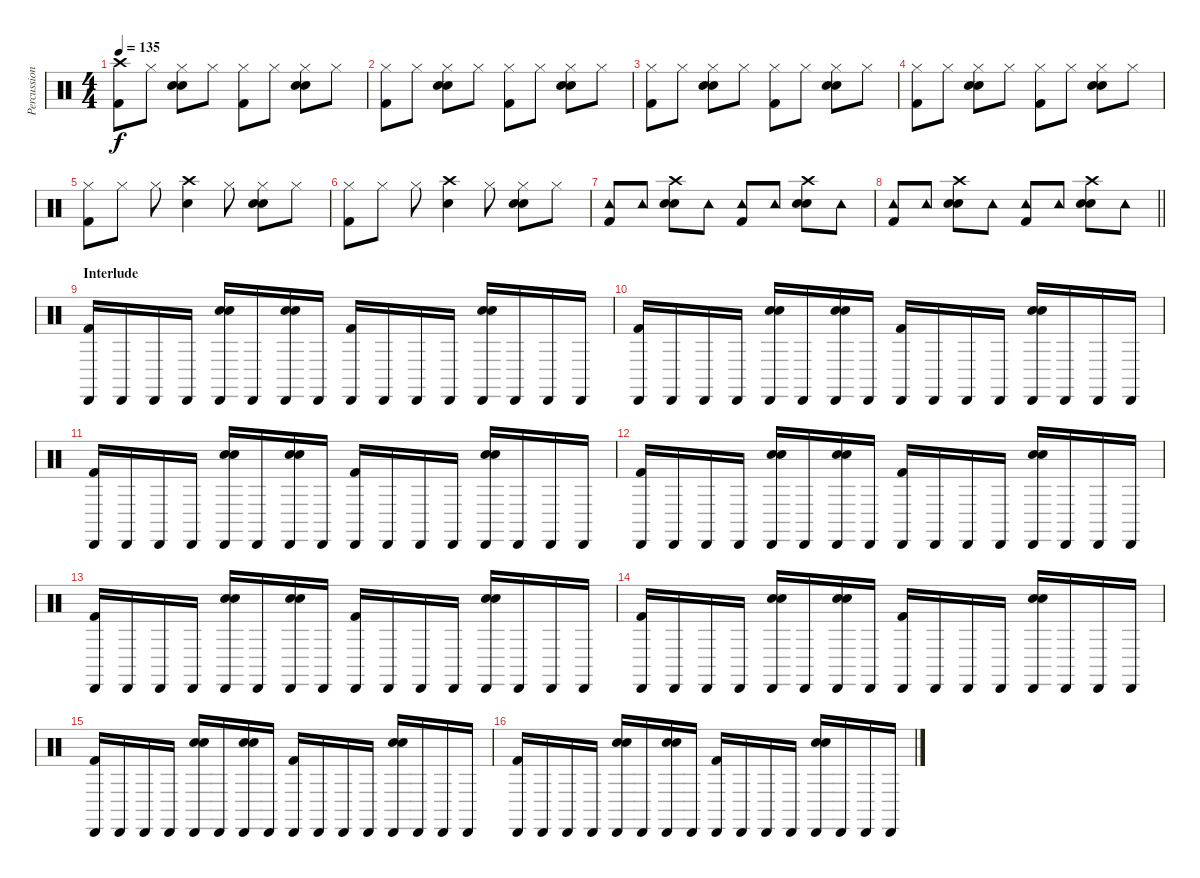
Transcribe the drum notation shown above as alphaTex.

\track ("Percussion" "Percussion") {instrument percussion}
\staff {score}
\articulation defaults
\ts (4 4)
\tempo 135
\clef neutral
\ks c
("Crash high (hit)" "Kick (hit) 2").8{dy f} "Hi-Hat (closed)".8 ("Hi-Hat (closed)" "Snare (hit) 2" "Hand Clap (hit)").8 "Hi-Hat (closed)".8 ("Hi-Hat (closed)" "Kick (hit) 2").8 "Hi-Hat (closed)".8 ("Hi-Hat (closed)" "Snare (hit) 2" "Hand Clap (hit)").8 "Hi-Hat (closed)".8 |
("Hi-Hat (closed)" "Kick (hit) 2").8 "Hi-Hat (closed)".8 ("Hi-Hat (closed)" "Snare (hit) 2" "Hand Clap (hit)").8 "Hi-Hat (closed)".8 ("Hi-Hat (closed)" "Kick (hit) 2").8 "Hi-Hat (closed)".8 ("Hi-Hat (closed)" "Snare (hit) 2" "Hand Clap (hit)").8 "Hi-Hat (closed)".8 |
("Hi-Hat (closed)" "Kick (hit) 2").8 "Hi-Hat (closed)".8 ("Hi-Hat (closed)" "Snare (hit) 2" "Hand Clap (hit)").8 "Hi-Hat (closed)".8 ("Hi-Hat (closed)" "Kick (hit) 2").8 "Hi-Hat (closed)".8 ("Hi-Hat (closed)" "Snare (hit) 2" "Hand Clap (hit)").8 "Hi-Hat (closed)".8 |
("Hi-Hat (closed)" "Kick (hit) 2").8 "Hi-Hat (closed)".8 ("Hi-Hat (closed)" "Snare (hit) 2" "Hand Clap (hit)").8 "Hi-Hat (closed)".8 ("Hi-Hat (closed)" "Kick (hit) 2").8 "Hi-Hat (closed)".8 ("Hi-Hat (closed)" "Snare (hit) 2" "Hand Clap (hit)").8 "Hi-Hat (closed)".8 |
("Hi-Hat (closed)" "Kick (hit) 2").8 "Hi-Hat (closed)".8 "Hi-Hat (closed)".8 ("Crash high (hit)" "Snare (hit) 2").4 "Hi-Hat (closed)".8 ("Hi-Hat (closed)" "Snare (hit) 2" "Hand Clap (hit)").8 "Hi-Hat (closed)".8 |
("Hi-Hat (closed)" "Kick (hit) 2").8 "Hi-Hat (closed)".8 "Hi-Hat (closed)".8 ("Crash high (hit)" "Snare (hit) 2").4 "Hi-Hat (closed)".8 ("Hi-Hat (closed)" "Snare (hit) 2" "Hand Clap (hit)").8 "Hi-Hat (closed)".8 |
("Tambourine (hit)" "Kick (hit) 2").8 "Tambourine (hit)".8 ("Crash high (hit)" "Snare (hit) 2" "Hand Clap (hit)").8 "Tambourine (hit)".8 ("Tambourine (hit)" "Kick (hit) 2").8 "Tambourine (hit)".8 ("Crash high (hit)" "Snare (hit) 2" "Hand Clap (hit)").8 "Tambourine (hit)".8 |
\barLineRight lightlight
("Tambourine (hit)" "Kick (hit) 2").8 "Tambourine (hit)".8 ("Crash high (hit)" "Snare (hit) 2" "Hand Clap (hit)").8 "Tambourine (hit)".8 ("Tambourine (hit)" "Kick (hit) 2").8 "Tambourine (hit)".8 ("Crash high (hit)" "Snare (hit) 2" "Hand Clap (hit)").8 "Tambourine (hit)".8 |
\section ("" "Interlude")
("Cabasa (hit)" "Kick (hit) 2").16 "Cabasa (hit)".16 "Cabasa (hit)".16 "Cabasa (hit)".16 ("Cabasa (hit)" "Snare (hit) 2" "Hand Clap (hit)").16 "Cabasa (hit)".16 ("Cabasa (hit)" "Snare (hit) 2" "Hand Clap (hit)").16 "Cabasa (hit)".16 ("Cabasa (hit)" "Kick (hit) 2").16 "Cabasa (hit)".16 "Cabasa (hit)".16 "Cabasa (hit)".16 ("Cabasa (hit)" "Snare (hit) 2" "Hand Clap (hit)").16 "Cabasa (hit)".16 "Cabasa (hit)".16 "Cabasa (hit)".16 |
("Cabasa (hit)" "Kick (hit) 2").16 "Cabasa (hit)".16 "Cabasa (hit)".16 "Cabasa (hit)".16 ("Cabasa (hit)" "Snare (hit) 2" "Hand Clap (hit)").16 "Cabasa (hit)".16 ("Cabasa (hit)" "Snare (hit) 2" "Hand Clap (hit)").16 "Cabasa (hit)".16 ("Cabasa (hit)" "Kick (hit) 2").16 "Cabasa (hit)".16 "Cabasa (hit)".16 "Cabasa (hit)".16 ("Cabasa (hit)" "Snare (hit) 2" "Hand Clap (hit)").16 "Cabasa (hit)".16 "Cabasa (hit)".16 "Cabasa (hit)".16 |
("Cabasa (hit)" "Kick (hit) 2").16 "Cabasa (hit)".16 "Cabasa (hit)".16 "Cabasa (hit)".16 ("Cabasa (hit)" "Snare (hit) 2" "Hand Clap (hit)").16 "Cabasa (hit)".16 ("Cabasa (hit)" "Snare (hit) 2" "Hand Clap (hit)").16 "Cabasa (hit)".16 ("Cabasa (hit)" "Kick (hit) 2").16 "Cabasa (hit)".16 "Cabasa (hit)".16 "Cabasa (hit)".16 ("Cabasa (hit)" "Snare (hit) 2" "Hand Clap (hit)").16 "Cabasa (hit)".16 "Cabasa (hit)".16 "Cabasa (hit)".16 |
("Cabasa (hit)" "Kick (hit) 2").16 "Cabasa (hit)".16 "Cabasa (hit)".16 "Cabasa (hit)".16 ("Cabasa (hit)" "Snare (hit) 2" "Hand Clap (hit)").16 "Cabasa (hit)".16 ("Cabasa (hit)" "Snare (hit) 2" "Hand Clap (hit)").16 "Cabasa (hit)".16 ("Cabasa (hit)" "Kick (hit) 2").16 "Cabasa (hit)".16 "Cabasa (hit)".16 "Cabasa (hit)".16 ("Cabasa (hit)" "Snare (hit) 2" "Hand Clap (hit)").16 "Cabasa (hit)".16 "Cabasa (hit)".16 "Cabasa (hit)".16 |
("Cabasa (hit)" "Kick (hit) 2").16 "Cabasa (hit)".16 "Cabasa (hit)".16 "Cabasa (hit)".16 ("Cabasa (hit)" "Snare (hit) 2" "Hand Clap (hit)").16 "Cabasa (hit)".16 ("Cabasa (hit)" "Snare (hit) 2" "Hand Clap (hit)").16 "Cabasa (hit)".16 ("Cabasa (hit)" "Kick (hit) 2").16 "Cabasa (hit)".16 "Cabasa (hit)".16 "Cabasa (hit)".16 ("Cabasa (hit)" "Snare (hit) 2" "Hand Clap (hit)").16 "Cabasa (hit)".16 "Cabasa (hit)".16 "Cabasa (hit)".16 |
("Cabasa (hit)" "Kick (hit) 2").16 "Cabasa (hit)".16 "Cabasa (hit)".16 "Cabasa (hit)".16 ("Cabasa (hit)" "Snare (hit) 2" "Hand Clap (hit)").16 "Cabasa (hit)".16 ("Cabasa (hit)" "Snare (hit) 2" "Hand Clap (hit)").16 "Cabasa (hit)".16 ("Cabasa (hit)" "Kick (hit) 2").16 "Cabasa (hit)".16 "Cabasa (hit)".16 "Cabasa (hit)".16 ("Cabasa (hit)" "Snare (hit) 2" "Hand Clap (hit)").16 "Cabasa (hit)".16 "Cabasa (hit)".16 "Cabasa (hit)".16 |
("Cabasa (hit)" "Kick (hit) 2").16 "Cabasa (hit)".16 "Cabasa (hit)".16 "Cabasa (hit)".16 ("Cabasa (hit)" "Snare (hit) 2" "Hand Clap (hit)").16 "Cabasa (hit)".16 ("Cabasa (hit)" "Snare (hit) 2" "Hand Clap (hit)").16 "Cabasa (hit)".16 ("Cabasa (hit)" "Kick (hit) 2").16 "Cabasa (hit)".16 "Cabasa (hit)".16 "Cabasa (hit)".16 ("Cabasa (hit)" "Snare (hit) 2" "Hand Clap (hit)").16 "Cabasa (hit)".16 "Cabasa (hit)".16 "Cabasa (hit)".16 |
("Cabasa (hit)" "Kick (hit) 2").16 "Cabasa (hit)".16 "Cabasa (hit)".16 "Cabasa (hit)".16 ("Cabasa (hit)" "Snare (hit) 2" "Hand Clap (hit)").16 "Cabasa (hit)".16 ("Cabasa (hit)" "Snare (hit) 2" "Hand Clap (hit)").16 "Cabasa (hit)".16 ("Cabasa (hit)" "Kick (hit) 2").16 "Cabasa (hit)".16 "Cabasa (hit)".16 "Cabasa (hit)".16 ("Cabasa (hit)" "Snare (hit) 2" "Hand Clap (hit)").16 "Cabasa (hit)".16 "Cabasa (hit)".16 "Cabasa (hit)".16
